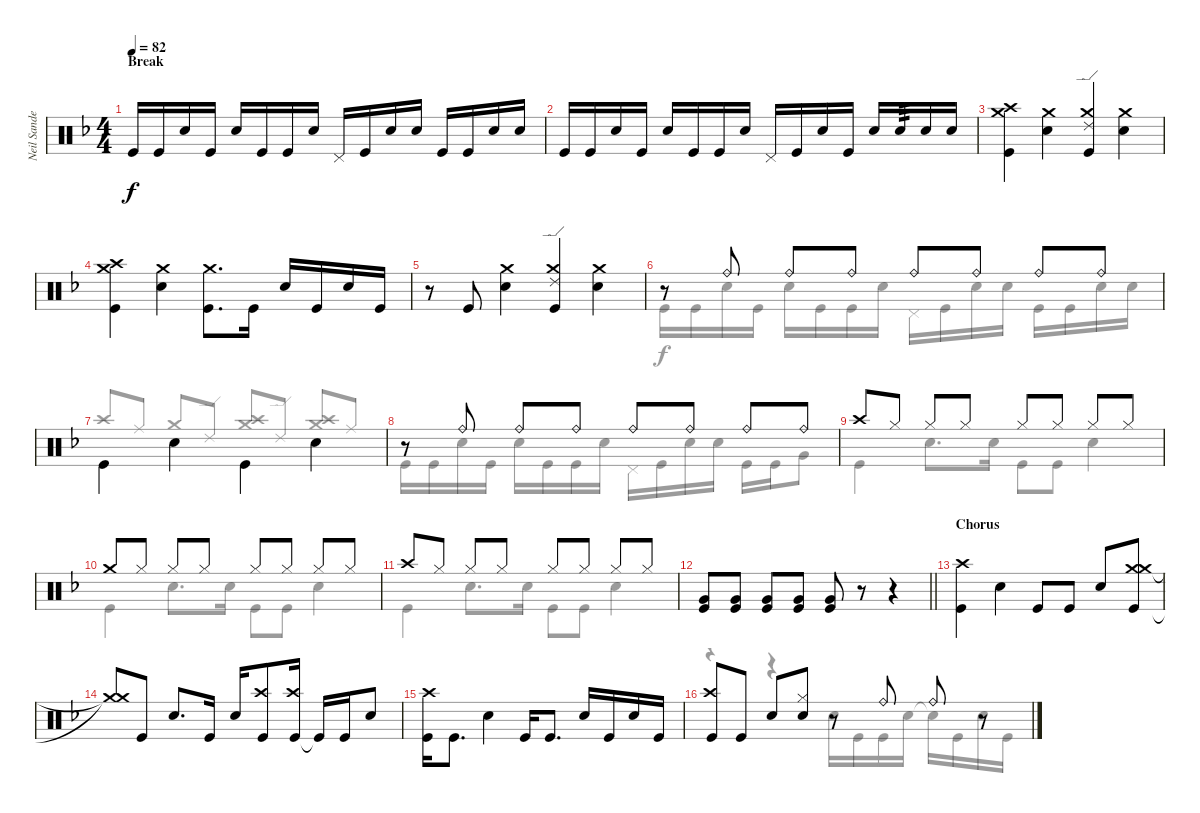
\track ("Neil Sanderson" "Neil Sande") {instrument percussion}
\staff {score}
\articulation defaults
\voice
\ts (4 4)
\section ("" "Break")
\tempo 82
\clef neutral
\ks f "Kick (hit)".16{dy f} "Kick (hit)".16 "Snare (hit) 2".16 "Kick (hit)".16 "Snare (hit) 2".16 "Kick (hit)".16 "Kick (hit)".16 "Snare (hit) 2".16 "Pedal Hi-Hat (hit)".16 "Kick (hit)".16 "Snare (hit) 2".16 "Snare (hit) 2".16 "Kick (hit)".16 "Kick (hit)".16 "Snare (hit) 2".16 "Snare (hit) 2".16
|
"Kick (hit)".16 "Kick (hit)".16 "Snare (hit) 2".16 "Kick (hit)".16 "Snare (hit) 2".16 "Kick (hit)".16 "Kick (hit)".16 "Snare (hit) 2".16 "Pedal Hi-Hat (hit)".16 "Kick (hit)".16 "Snare (hit) 2".16 "Kick (hit)".16 "Snare (hit) 2".16{beam Up} "Snare (hit) 2".16{tp 3 beam Up} "Snare (hit) 2".16{beam Up} "Snare (hit) 2".16{beam Up} |
("Crash medium (hit)" "Kick (hit)" "Crash high (hit)").4 ("Crash medium (hit)" "Snare (hit) 2").4 ("Crash medium (hit)" "Kick (hit)" "Ride (edge) 2").4 ("Crash medium (hit)" "Snare (hit) 2").4 |
("Crash medium (hit)" "Kick (hit)" "Crash high (hit)").4 ("Crash medium (hit)" "Snare (hit) 2").4 ("Crash medium (hit)" "Kick (hit)").8{d} "Kick (hit)".16 "Snare (hit) 2".16 "Kick (hit)".16 "Snare (hit) 2".16 "Kick (hit)".16 |
r.8 "Kick (hit)".8 ("Crash medium (hit)" "Snare (hit) 2").4 ("Crash medium (hit)" "Kick (hit)" "Ride (edge) 2").4 ("Crash medium (hit)" "Snare (hit) 2").4 |
r.8 "Ride (bell)".8 "Ride (bell)".8 "Ride (bell)".8 "Ride (bell)".8 "Ride (bell)".8 "Ride (bell)".8 "Ride (bell)".8 |
"Kick (hit)".4{beam Down} "Snare (hit) 2".4{beam Down} "Kick (hit)".4{beam Down} "Snare (hit) 2".4{beam Down} |
r.8 "Ride (bell)".8 "Ride (bell)".8 "Ride (bell)".8 "Ride (bell)".8 "Ride (bell)".8 "Ride (bell)".8 "Ride (bell)".8 |
"Crash high (hit)".8 "Hi-Hat (closed)".8 "Hi-Hat (closed)".8 "Hi-Hat (closed)".8 "Hi-Hat (closed)".8 "Hi-Hat (closed)".8 "Hi-Hat (closed)".8 "Hi-Hat (closed)".8 |
"Crash medium (hit)".8 "Hi-Hat (closed)".8 "Hi-Hat (closed)".8 "Hi-Hat (closed)".8 "Hi-Hat (closed)".8 "Hi-Hat (closed)".8 "Hi-Hat (closed)".8 "Hi-Hat (closed)".8 |
"Crash high (hit)".8 "Hi-Hat (closed)".8 "Hi-Hat (closed)".8 "Hi-Hat (closed)".8 "Hi-Hat (closed)".8 "Hi-Hat (closed)".8 "Hi-Hat (closed)".8 "Hi-Hat (closed)".8 |
\barLineRight lightlight
("Kick (hit)" "Very Low Tom (hit)").8 ("Kick (hit)" "Very Low Tom (hit)").8 ("Kick (hit)" "Very Low Tom (hit)").8 ("Kick (hit)" "Very Low Tom (hit)").8 ("Kick (hit)" "Very Low Tom (hit)").8 r.8 r.4 |
\section ("" "Chorus")
("Crash high (hit)" "Kick (hit)").4 "Snare (hit) 2".4 "Kick (hit)".8 "Kick (hit)".8 "Snare (hit) 2".8{beam Up} ("Kick (hit)" "Crash medium (hit)" "Crash medium (hit)").8{beam Up} |
("Crash medium (hit)"{t} "Crash medium (hit)"{t}).8{beam Up} "Kick (hit)".8{beam Up} "Snare (hit) 2".8{d} "Kick (hit)".16 "Snare (hit) 2".16{beam Up} ("Kick (hit)" "Crash high (hit)").8{beam Up} ("Kick (hit)" "Crash high (hit)").16{beam Up} "Kick (hit)"{t}.16 "Kick (hit)".16 "Snare (hit) 2".8 |
("Kick (hit)" "Crash high (hit)").16 "Kick (hit)".8{d} "Snare (hit) 2".4 "Kick (hit)".16 "Kick (hit)".8{d} "Snare (hit) 2".16 "Kick (hit)".16 "Snare (hit) 2".16 "Kick (hit)".16 |
("Crash high (hit)" "Kick (hit)").8 "Kick (hit)".8 "Snare (hit) 2".8 ("Snare (hit) 2" "Hi-Hat (closed)").8 r.8 "Ride (bell)".8{beam Up} "Ride (bell)".8{beam Up} r.8
\voice
\clef neutral
\ottava regular
\simile none
\ks f
|
|
|
|
|
"Kick (hit)".16 "Kick (hit)".16 "Snare (hit) 2".16 "Kick (hit)".16 "Snare (hit) 2".16 "Kick (hit)".16 "Kick (hit)".16 "Snare (hit) 2".16 "Pedal Hi-Hat (hit)".16 "Kick (hit)".16 "Snare (hit) 2".16 "Snare (hit) 2".16 "Kick (hit)".16 "Kick (hit)".16 "Snare (hit) 2".16 "Snare (hit) 2".16 |
"Crash high (hit)".8{beam Up} "Ride (middle)".8{beam Up} "Crash medium (hit)".8{beam Up} "Ride (edge) 2".8{beam Up} ("Crash high (hit)" "Crash medium (hit)").8{beam Up} "Ride (edge) 2".8{beam Up} ("Crash medium (hit)" "Crash high (hit)").8{beam Up} "Ride (middle)".8{beam Up} |
"Kick (hit)".16 "Kick (hit)".16 "Snare (hit) 2".16 "Kick (hit)".16 "Snare (hit) 2".16 "Kick (hit)".16 "Kick (hit)".16 "Snare (hit) 2".16 "Pedal Hi-Hat (hit)".16 "Kick (hit)".16 "Snare (hit) 2".16 "Snare (hit) 2".16 "Kick (hit)".16 "Kick (hit)".16 "Very Low Tom (hit)".8 |
"Kick (hit)".4 "Snare (hit) 2".8{d} "Snare (hit) 2".16 "Kick (hit)".8 "Kick (hit)".8 "Snare (hit) 2".4 |
"Kick (hit)".4 "Snare (hit) 2".8{d} "Snare (hit) 2".16 "Kick (hit)".8 "Kick (hit)".8 "Snare (hit) 2".4 |
"Kick (hit)".4 "Snare (hit) 2".8{d} "Snare (hit) 2".16 "Kick (hit)".8 "Kick (hit)".8 "Snare (hit) 2".4 |
\barLineRight lightlight
|
|
|
|
r.4 r.4 "Snare (hit) 2".16{beam Down} "Kick (hit)".16{beam Down} "Kick (hit)".16{beam Down} "Snare (hit) 2".16{beam Down} "Snare (hit) 2"{t}.16{beam Down} "Kick (hit)".16{beam Down} "Snare (hit) 2".16{beam Down} "Kick (hit)".16{beam Down}
